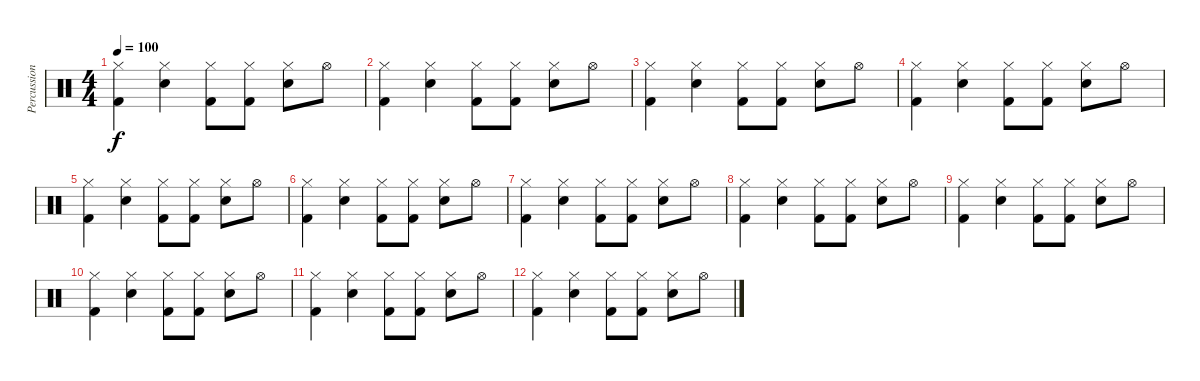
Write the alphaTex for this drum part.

\track ("Percussions" "Percussion") {instrument percussion}
\staff {score}
\articulation defaults
\ts (4 4)
\tempo 100
\clef neutral
\ks c
("Kick (hit) 2" "Hi-Hat (closed)").4{dy f} ("Snare (hit) 2" "Hi-Hat (closed)").4 ("Kick (hit) 2" "Hi-Hat (closed)").8 ("Kick (hit) 2" "Hi-Hat (closed)").8 ("Snare (hit) 2" "Hi-Hat (closed)").8 "Hi-Hat (open)".8 |
("Kick (hit) 2" "Hi-Hat (closed)").4 ("Snare (hit) 2" "Hi-Hat (closed)").4 ("Kick (hit) 2" "Hi-Hat (closed)").8 ("Kick (hit) 2" "Hi-Hat (closed)").8 ("Snare (hit) 2" "Hi-Hat (closed)").8 "Hi-Hat (open)".8 |
("Kick (hit) 2" "Hi-Hat (closed)").4 ("Snare (hit) 2" "Hi-Hat (closed)").4 ("Kick (hit) 2" "Hi-Hat (closed)").8 ("Kick (hit) 2" "Hi-Hat (closed)").8 ("Snare (hit) 2" "Hi-Hat (closed)").8 "Hi-Hat (open)".8 |
("Kick (hit) 2" "Hi-Hat (closed)").4 ("Snare (hit) 2" "Hi-Hat (closed)").4 ("Kick (hit) 2" "Hi-Hat (closed)").8 ("Kick (hit) 2" "Hi-Hat (closed)").8 ("Snare (hit) 2" "Hi-Hat (closed)").8 "Hi-Hat (open)".8 |
("Kick (hit) 2" "Hi-Hat (closed)").4 ("Snare (hit) 2" "Hi-Hat (closed)").4 ("Kick (hit) 2" "Hi-Hat (closed)").8 ("Kick (hit) 2" "Hi-Hat (closed)").8 ("Snare (hit) 2" "Hi-Hat (closed)").8 "Hi-Hat (open)".8 |
("Kick (hit) 2" "Hi-Hat (closed)").4 ("Snare (hit) 2" "Hi-Hat (closed)").4 ("Kick (hit) 2" "Hi-Hat (closed)").8 ("Kick (hit) 2" "Hi-Hat (closed)").8 ("Snare (hit) 2" "Hi-Hat (closed)").8 "Hi-Hat (open)".8 |
("Kick (hit) 2" "Hi-Hat (closed)").4 ("Snare (hit) 2" "Hi-Hat (closed)").4 ("Kick (hit) 2" "Hi-Hat (closed)").8 ("Kick (hit) 2" "Hi-Hat (closed)").8 ("Snare (hit) 2" "Hi-Hat (closed)").8 "Hi-Hat (open)".8 |
("Kick (hit) 2" "Hi-Hat (closed)").4 ("Snare (hit) 2" "Hi-Hat (closed)").4 ("Kick (hit) 2" "Hi-Hat (closed)").8 ("Kick (hit) 2" "Hi-Hat (closed)").8 ("Snare (hit) 2" "Hi-Hat (closed)").8 "Hi-Hat (open)".8 |
("Kick (hit) 2" "Hi-Hat (closed)").4 ("Snare (hit) 2" "Hi-Hat (closed)").4 ("Kick (hit) 2" "Hi-Hat (closed)").8 ("Kick (hit) 2" "Hi-Hat (closed)").8 ("Snare (hit) 2" "Hi-Hat (closed)").8 "Hi-Hat (open)".8 |
("Kick (hit) 2" "Hi-Hat (closed)").4 ("Snare (hit) 2" "Hi-Hat (closed)").4 ("Kick (hit) 2" "Hi-Hat (closed)").8 ("Kick (hit) 2" "Hi-Hat (closed)").8 ("Snare (hit) 2" "Hi-Hat (closed)").8 "Hi-Hat (open)".8 |
("Kick (hit) 2" "Hi-Hat (closed)").4 ("Snare (hit) 2" "Hi-Hat (closed)").4 ("Kick (hit) 2" "Hi-Hat (closed)").8 ("Kick (hit) 2" "Hi-Hat (closed)").8 ("Snare (hit) 2" "Hi-Hat (closed)").8 "Hi-Hat (open)".8 |
("Kick (hit) 2" "Hi-Hat (closed)").4 ("Snare (hit) 2" "Hi-Hat (closed)").4 ("Kick (hit) 2" "Hi-Hat (closed)").8 ("Kick (hit) 2" "Hi-Hat (closed)").8 ("Snare (hit) 2" "Hi-Hat (closed)").8 "Hi-Hat (open)".8
